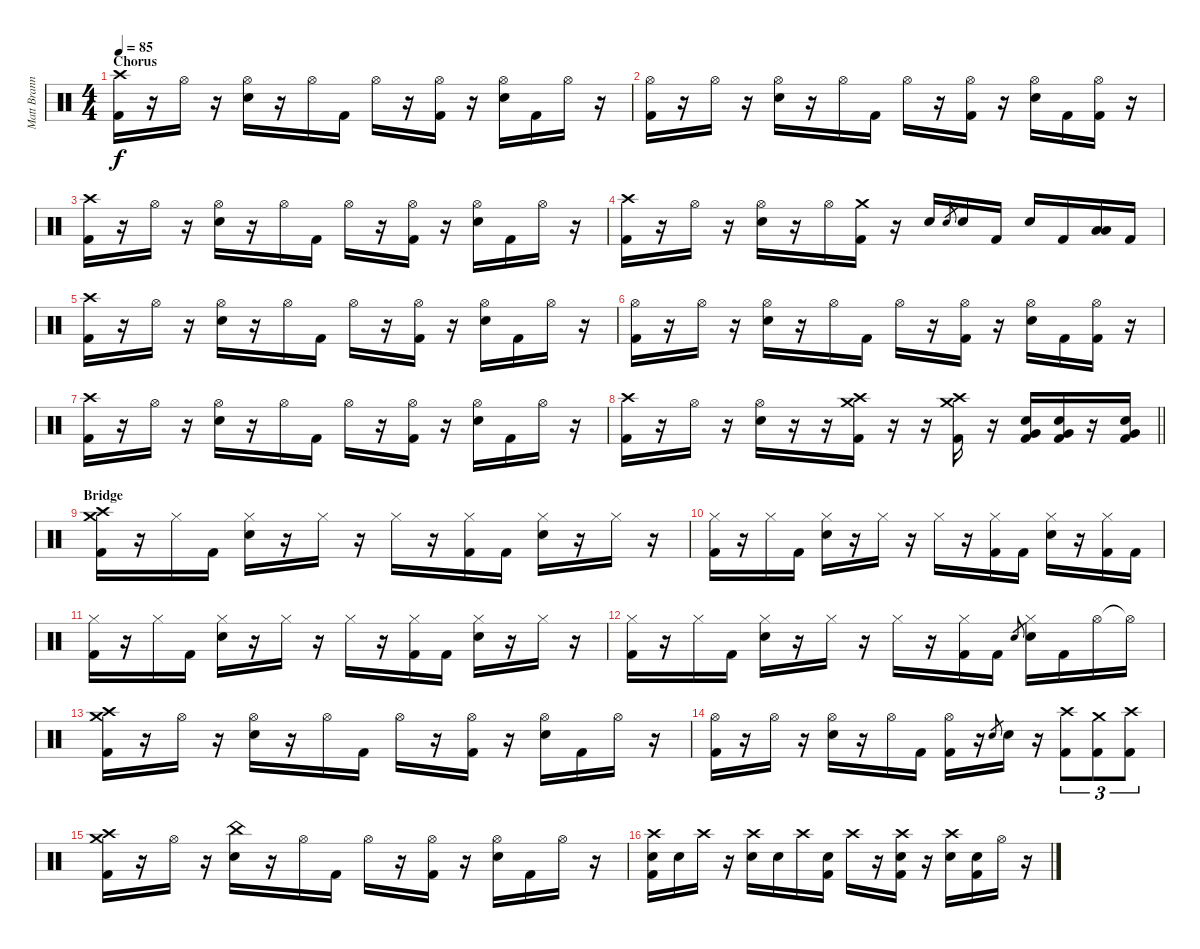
\track ("Matt Brann" "Matt Brann") {instrument percussion}
\staff {score}
\articulation defaults
\ts (4 4)
\section ("" "Chorus")
\tempo 85
\clef neutral
\ks c
("Crash high (hit)" "Kick (hit) 2").16{dy f} r.16 "Hi-Hat (open)".16 r.16 ("Hi-Hat (open)" "Electric Snare (hit)").16 r.16 "Hi-Hat (open)".16 "Kick (hit) 2".16 "Hi-Hat (open)".16 r.16 ("Hi-Hat (open)" "Kick (hit) 2").16 r.16 ("Hi-Hat (open)" "Electric Snare (hit)").16 "Kick (hit) 2".16 "Hi-Hat (open)".16 r.16 |
("Hi-Hat (open)" "Kick (hit) 2").16 r.16 "Hi-Hat (open)".16 r.16 ("Hi-Hat (open)" "Electric Snare (hit)").16 r.16 "Hi-Hat (open)".16 "Kick (hit) 2".16 "Hi-Hat (open)".16 r.16 ("Hi-Hat (open)" "Kick (hit) 2").16 r.16 ("Hi-Hat (open)" "Electric Snare (hit)").16 "Kick (hit) 2".16 ("Hi-Hat (open)" "Kick (hit) 2").16 r.16 |
("Crash high (hit)" "Kick (hit) 2").16 r.16 "Hi-Hat (open)".16 r.16 ("Hi-Hat (open)" "Electric Snare (hit)").16 r.16 "Hi-Hat (open)".16 "Kick (hit) 2".16 "Hi-Hat (open)".16 r.16 ("Hi-Hat (open)" "Kick (hit) 2").16 r.16 ("Hi-Hat (open)" "Electric Snare (hit)").16 "Kick (hit) 2".16 "Hi-Hat (open)".16 r.16 |
("Crash high (hit)" "Kick (hit) 2").16 r.16 "Hi-Hat (open)".16 r.16 ("Hi-Hat (open)" "Electric Snare (hit)").16 r.16 "Hi-Hat (open)".16 ("Crash medium (hit)" "Kick (hit) 2").16 r.16 "Electric Snare (hit)".16 "Electric Snare (hit)".8{gr} "Electric Snare (hit)".16 "Kick (hit) 2".16 "Electric Snare (hit)".16 "Kick (hit) 2".16 ("Low Tom (hit)" "Low Floor Tom (hit)").16 "Kick (hit) 2".16 |
("Crash high (hit)" "Kick (hit) 2").16 r.16 "Hi-Hat (open)".16 r.16 ("Hi-Hat (open)" "Electric Snare (hit)").16 r.16 "Hi-Hat (open)".16 "Kick (hit) 2".16 "Hi-Hat (open)".16 r.16 ("Hi-Hat (open)" "Kick (hit) 2").16 r.16 ("Hi-Hat (open)" "Electric Snare (hit)").16 "Kick (hit) 2".16 "Hi-Hat (open)".16 r.16 |
("Hi-Hat (open)" "Kick (hit) 2").16 r.16 "Hi-Hat (open)".16 r.16 ("Hi-Hat (open)" "Electric Snare (hit)").16 r.16 "Hi-Hat (open)".16 "Kick (hit) 2".16 "Hi-Hat (open)".16 r.16 ("Hi-Hat (open)" "Kick (hit) 2").16 r.16 ("Hi-Hat (open)" "Electric Snare (hit)").16 "Kick (hit) 2".16 ("Hi-Hat (open)" "Kick (hit) 2").16 r.16 |
("Crash high (hit)" "Kick (hit) 2").16 r.16 "Hi-Hat (open)".16 r.16 ("Hi-Hat (open)" "Electric Snare (hit)").16 r.16 "Hi-Hat (open)".16 "Kick (hit) 2".16 "Hi-Hat (open)".16 r.16 ("Hi-Hat (open)" "Kick (hit) 2").16 r.16 ("Hi-Hat (open)" "Electric Snare (hit)").16 "Kick (hit) 2".16 "Hi-Hat (open)".16 r.16 |
\barLineRight lightlight
("Crash high (hit)" "Kick (hit) 2").16 r.16 "Hi-Hat (open)".16 r.16 ("Hi-Hat (open)" "Electric Snare (hit)").16 r.16 r.16 ("Crash high (hit)" "Crash medium (hit)" "Kick (hit) 2").16 r.16 r.16 ("Crash high (hit)" "Crash medium (hit)" "Kick (hit) 2").16 r.16 ("Very Low Tom (hit)" "Electric Snare (hit)" "Kick (hit) 2").16 ("Very Low Tom (hit)" "Electric Snare (hit)" "Kick (hit) 2").16 r.16 ("Very Low Tom (hit)" "Electric Snare (hit)" "Kick (hit) 2").16 |
\section ("" "Bridge")
("Crash high (hit)" "Crash medium (hit)" "Kick (hit) 2").16 r.16 "Hi-Hat (closed)".16 "Kick (hit) 2".16 ("Hi-Hat (closed)" "Snare (hit) 2").16 r.16 "Hi-Hat (closed)".16 r.16 "Hi-Hat (closed)".16 r.16 ("Hi-Hat (closed)" "Kick (hit) 2").16 "Kick (hit) 2".16 ("Hi-Hat (closed)" "Snare (hit) 2").16 r.16 "Hi-Hat (closed)".16 r.16 |
("Hi-Hat (closed)" "Kick (hit) 2").16 r.16 "Hi-Hat (closed)".16 "Kick (hit) 2".16 ("Hi-Hat (closed)" "Snare (hit) 2").16 r.16 "Hi-Hat (closed)".16 r.16 "Hi-Hat (closed)".16 r.16 ("Hi-Hat (closed)" "Kick (hit) 2").16 "Kick (hit) 2".16 ("Hi-Hat (closed)" "Snare (hit) 2").16 r.16 ("Hi-Hat (closed)" "Kick (hit) 2").16 "Kick (hit) 2".16 |
("Hi-Hat (closed)" "Kick (hit) 2").16 r.16 "Hi-Hat (closed)".16 "Kick (hit) 2".16 ("Hi-Hat (closed)" "Snare (hit) 2").16 r.16 "Hi-Hat (closed)".16 r.16 "Hi-Hat (closed)".16 r.16 ("Hi-Hat (closed)" "Kick (hit) 2").16 "Kick (hit) 2".16 ("Hi-Hat (closed)" "Snare (hit) 2").16 r.16 "Hi-Hat (closed)".16 r.16 |
("Hi-Hat (closed)" "Kick (hit) 2").16 r.16 "Hi-Hat (closed)".16 "Kick (hit) 2".16 ("Hi-Hat (closed)" "Snare (hit) 2").16 r.16 "Hi-Hat (closed)".16 r.16 "Hi-Hat (closed)".16 r.16 ("Hi-Hat (closed)" "Kick (hit) 2").16 "Kick (hit) 2".16 "Electric Snare (hit)".8{gr} ("Hi-Hat (closed)" "Electric Snare (hit)").16 "Kick (hit) 2".16 "Hi-Hat (open)".16 "Hi-Hat (open)"{t}.16 |
("Crash high (hit)" "Crash medium (hit)" "Kick (hit) 2").16 r.16 "Hi-Hat (open)".16 r.16 ("Hi-Hat (open)" "Electric Snare (hit)").16 r.16 "Hi-Hat (open)".16 "Kick (hit) 2".16 "Hi-Hat (open)".16 r.16 ("Hi-Hat (open)" "Kick (hit) 2").16 r.16 ("Hi-Hat (open)" "Electric Snare (hit)").16 "Kick (hit) 2".16 "Hi-Hat (open)".16 r.16 |
("Hi-Hat (open)" "Kick (hit) 2").16 r.16 "Hi-Hat (open)".16 r.16 ("Hi-Hat (open)" "Electric Snare (hit)").16 r.16 "Hi-Hat (open)".16 "Kick (hit) 2".16 ("Hi-Hat (open)" "Kick (hit) 2").16 r.16 "Electric Snare (hit)".8{gr} "Electric Snare (hit)".16 r.16 ("Crash high (hit)" "Kick (hit) 2").8{tu (3 2)} ("Crash medium (hit)" "Kick (hit) 2").8{tu (3 2)} ("Crash high (hit)" "Kick (hit) 2").8{tu (3 2)} |
("Crash high (hit)" "Crash medium (hit)" "Kick (hit) 2").16 r.16 "Hi-Hat (open)".16 r.16 ("China (hit)" "Electric Snare (hit)").16 r.16 "Hi-Hat (open)".16 "Kick (hit) 2".16 "Hi-Hat (open)".16 r.16 ("Hi-Hat (open)" "Kick (hit) 2").16 r.16 ("Hi-Hat (open)" "Electric Snare (hit)").16 "Kick (hit) 2".16 "Hi-Hat (open)".16 r.16 |
("Crash high (hit)" "Electric Snare (hit)" "Kick (hit) 2").16 "Electric Snare (hit)".16 "Crash high (hit)".16 r.16 ("Crash high (hit)" "Electric Snare (hit)").16 "Electric Snare (hit)".16 "Crash high (hit)".16 ("Electric Snare (hit)" "Kick (hit) 2").16 "Crash high (hit)".16 r.16 ("Crash high (hit)" "Electric Snare (hit)" "Kick (hit) 2").16 r.16 ("Crash high (hit)" "Electric Snare (hit)").16 ("Electric Snare (hit)" "Kick (hit) 2").16 "Hi-Hat (open)".16 r.16
